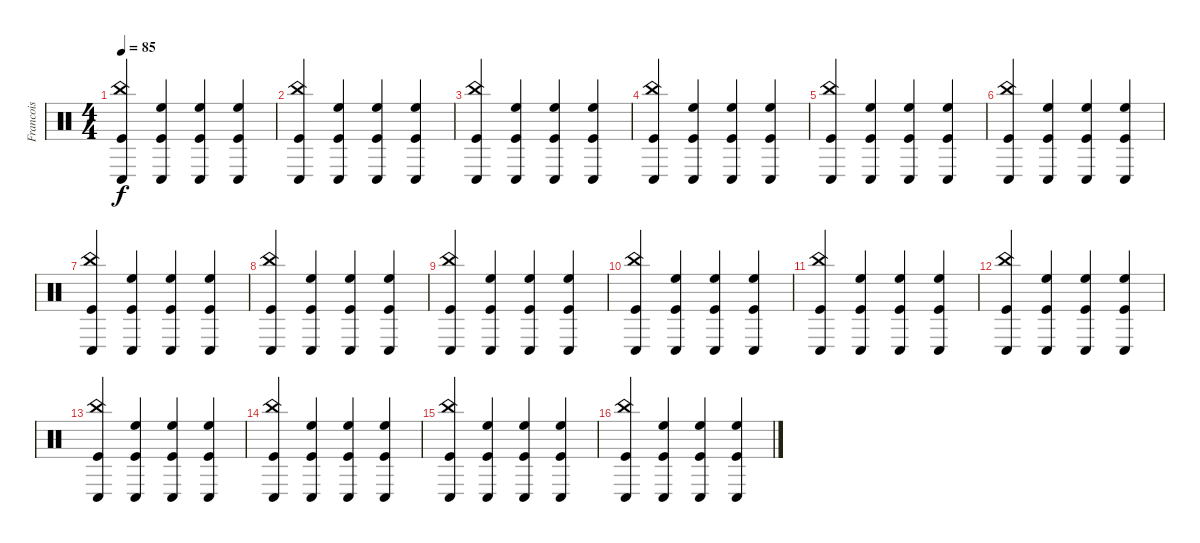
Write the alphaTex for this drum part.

\track ("Francois" "Francois") {instrument percussion}
\staff {score}
\articulation defaults
\ts (4 4)
\tempo 85
\clef neutral
\ks c
("China (hit)" "Kick (hit)" "Conga low (hit)").4{dy f} ("High Floor Tom (hit)" "Kick (hit)" "Conga low (hit)").4 ("High Floor Tom (hit)" "Kick (hit)" "Conga low (hit)").4 ("High Floor Tom (hit)" "Kick (hit)" "Conga low (hit)").4 |
("China (hit)" "Kick (hit)" "Conga low (hit)").4 ("High Floor Tom (hit)" "Kick (hit)" "Conga low (hit)").4 ("High Floor Tom (hit)" "Kick (hit)" "Conga low (hit)").4 ("High Floor Tom (hit)" "Kick (hit)" "Conga low (hit)").4 |
("China (hit)" "Kick (hit)" "Conga low (hit)").4 ("High Floor Tom (hit)" "Kick (hit)" "Conga low (hit)").4 ("High Floor Tom (hit)" "Kick (hit)" "Conga low (hit)").4 ("High Floor Tom (hit)" "Kick (hit)" "Conga low (hit)").4 |
("China (hit)" "Kick (hit)" "Conga low (hit)").4 ("High Floor Tom (hit)" "Kick (hit)" "Conga low (hit)").4 ("High Floor Tom (hit)" "Kick (hit)" "Conga low (hit)").4 ("High Floor Tom (hit)" "Kick (hit)" "Conga low (hit)").4 |
("China (hit)" "Kick (hit)" "Conga low (hit)").4 ("High Floor Tom (hit)" "Kick (hit)" "Conga low (hit)").4 ("High Floor Tom (hit)" "Kick (hit)" "Conga low (hit)").4 ("High Floor Tom (hit)" "Kick (hit)" "Conga low (hit)").4 |
("China (hit)" "Kick (hit)" "Conga low (hit)").4 ("High Floor Tom (hit)" "Kick (hit)" "Conga low (hit)").4 ("High Floor Tom (hit)" "Kick (hit)" "Conga low (hit)").4 ("High Floor Tom (hit)" "Kick (hit)" "Conga low (hit)").4 |
("China (hit)" "Kick (hit)" "Conga low (hit)").4 ("High Floor Tom (hit)" "Kick (hit)" "Conga low (hit)").4 ("High Floor Tom (hit)" "Kick (hit)" "Conga low (hit)").4 ("High Floor Tom (hit)" "Kick (hit)" "Conga low (hit)").4 |
("China (hit)" "Kick (hit)" "Conga low (hit)").4 ("High Floor Tom (hit)" "Kick (hit)" "Conga low (hit)").4 ("High Floor Tom (hit)" "Kick (hit)" "Conga low (hit)").4 ("High Floor Tom (hit)" "Kick (hit)" "Conga low (hit)").4 |
("China (hit)" "Kick (hit)" "Conga low (hit)").4 ("High Floor Tom (hit)" "Kick (hit)" "Conga low (hit)").4 ("High Floor Tom (hit)" "Kick (hit)" "Conga low (hit)").4 ("High Floor Tom (hit)" "Kick (hit)" "Conga low (hit)").4 |
("China (hit)" "Kick (hit)" "Conga low (hit)").4 ("High Floor Tom (hit)" "Kick (hit)" "Conga low (hit)").4 ("High Floor Tom (hit)" "Kick (hit)" "Conga low (hit)").4 ("High Floor Tom (hit)" "Kick (hit)" "Conga low (hit)").4 |
("China (hit)" "Kick (hit)" "Conga low (hit)").4 ("High Floor Tom (hit)" "Kick (hit)" "Conga low (hit)").4 ("High Floor Tom (hit)" "Kick (hit)" "Conga low (hit)").4 ("High Floor Tom (hit)" "Kick (hit)" "Conga low (hit)").4 |
("China (hit)" "Kick (hit)" "Conga low (hit)").4 ("High Floor Tom (hit)" "Kick (hit)" "Conga low (hit)").4 ("High Floor Tom (hit)" "Kick (hit)" "Conga low (hit)").4 ("High Floor Tom (hit)" "Kick (hit)" "Conga low (hit)").4 |
("China (hit)" "Kick (hit)" "Conga low (hit)").4 ("High Floor Tom (hit)" "Kick (hit)" "Conga low (hit)").4 ("High Floor Tom (hit)" "Kick (hit)" "Conga low (hit)").4 ("High Floor Tom (hit)" "Kick (hit)" "Conga low (hit)").4 |
("China (hit)" "Kick (hit)" "Conga low (hit)").4 ("High Floor Tom (hit)" "Kick (hit)" "Conga low (hit)").4 ("High Floor Tom (hit)" "Kick (hit)" "Conga low (hit)").4 ("High Floor Tom (hit)" "Kick (hit)" "Conga low (hit)").4 |
("China (hit)" "Kick (hit)" "Conga low (hit)").4 ("High Floor Tom (hit)" "Kick (hit)" "Conga low (hit)").4 ("High Floor Tom (hit)" "Kick (hit)" "Conga low (hit)").4 ("High Floor Tom (hit)" "Kick (hit)" "Conga low (hit)").4 |
("China (hit)" "Kick (hit)" "Conga low (hit)").4 ("High Floor Tom (hit)" "Kick (hit)" "Conga low (hit)").4 ("High Floor Tom (hit)" "Kick (hit)" "Conga low (hit)").4 ("High Floor Tom (hit)" "Kick (hit)" "Conga low (hit)").4
